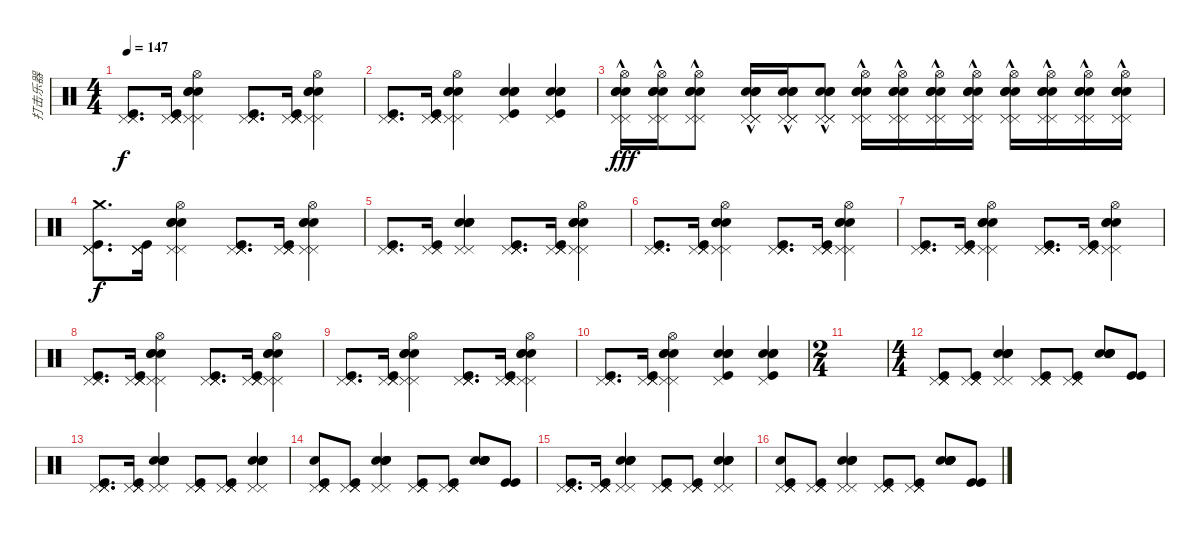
\track ("打击乐器" "打击乐器") {instrument percussion}
\staff {score}
\articulation defaults
\ts (4 4)
\tempo 147
\clef neutral
\ks c
("Pedal Hi-Hat (hit)" "Pedal Hi-Hat (hit)" "Pedal Hi-Hat (hit)" "Kick (hit)").8{d dy f} ("Pedal Hi-Hat (hit)" "Pedal Hi-Hat (hit)" "Pedal Hi-Hat (hit)" "Pedal Hi-Hat (hit)" "Kick (hit)").16 ("Electric Snare (hit)" "Electric Snare (hit)" "Electric Snare (hit)" "Hi-Hat (open)" "Pedal Hi-Hat (hit)" "Pedal Hi-Hat (hit)").4 ("Pedal Hi-Hat (hit)" "Pedal Hi-Hat (hit)" "Pedal Hi-Hat (hit)" "Pedal Hi-Hat (hit)" "Kick (hit)").8{d} ("Pedal Hi-Hat (hit)" "Pedal Hi-Hat (hit)" "Pedal Hi-Hat (hit)" "Pedal Hi-Hat (hit)" "Kick (hit)").16 ("Electric Snare (hit)" "Electric Snare (hit)" "Electric Snare (hit)" "Hi-Hat (open)" "Pedal Hi-Hat (hit)" "Pedal Hi-Hat (hit)").4 |
("Pedal Hi-Hat (hit)" "Pedal Hi-Hat (hit)" "Pedal Hi-Hat (hit)" "Kick (hit)").8{d} ("Pedal Hi-Hat (hit)" "Pedal Hi-Hat (hit)" "Pedal Hi-Hat (hit)" "Pedal Hi-Hat (hit)" "Kick (hit)").16 ("Electric Snare (hit)" "Electric Snare (hit)" "Electric Snare (hit)" "Hi-Hat (open)" "Pedal Hi-Hat (hit)" "Pedal Hi-Hat (hit)").4 ("Pedal Hi-Hat (hit)" "Electric Snare (hit)" "Electric Snare (hit)" "Electric Snare (hit)" "Kick (hit)").4 ("Pedal Hi-Hat (hit)" "Electric Snare (hit)" "Electric Snare (hit)" "Electric Snare (hit)" "Kick (hit)").4 |
("Pedal Hi-Hat (hit)" "Pedal Hi-Hat (hit)" "Hi-Hat (open)" "Electric Snare (hit)" "Electric Snare (hit)" "Electric Snare (hit)"{hac}).16{dy fff} ("Pedal Hi-Hat (hit)" "Pedal Hi-Hat (hit)" "Hi-Hat (open)" "Electric Snare (hit)" "Electric Snare (hit)" "Electric Snare (hit)"{hac}).16 ("Pedal Hi-Hat (hit)" "Pedal Hi-Hat (hit)" "Hi-Hat (open)" "Electric Snare (hit)" "Electric Snare (hit)" "Electric Snare (hit)"{hac}).8 ("Pedal Hi-Hat (hit)" "Pedal Hi-Hat (hit)" "Pedal Hi-Hat (hit)" "Electric Snare (hit)" "Electric Snare (hit)" "Electric Snare (hit)"{hac}).16 ("Pedal Hi-Hat (hit)" "Pedal Hi-Hat (hit)" "Pedal Hi-Hat (hit)" "Electric Snare (hit)" "Electric Snare (hit)" "Electric Snare (hit)"{hac}).16 ("Pedal Hi-Hat (hit)" "Pedal Hi-Hat (hit)" "Pedal Hi-Hat (hit)" "Electric Snare (hit)" "Electric Snare (hit)" "Electric Snare (hit)"{hac}).8 ("Electric Snare (hit)" "Electric Snare (hit)" "Hi-Hat (open)" "Pedal Hi-Hat (hit)" "Pedal Hi-Hat (hit)" "Electric Snare (hit)"{hac}).16 ("Electric Snare (hit)" "Electric Snare (hit)" "Hi-Hat (open)" "Pedal Hi-Hat (hit)" "Pedal Hi-Hat (hit)" "Electric Snare (hit)"{hac}).16 ("Electric Snare (hit)" "Electric Snare (hit)" "Hi-Hat (open)" "Pedal Hi-Hat (hit)" "Pedal Hi-Hat (hit)" "Electric Snare (hit)"{hac}).16 ("Electric Snare (hit)" "Electric Snare (hit)" "Hi-Hat (open)" "Pedal Hi-Hat (hit)" "Pedal Hi-Hat (hit)" "Electric Snare (hit)"{hac}).16 ("Electric Snare (hit)" "Electric Snare (hit)" "Hi-Hat (open)" "Pedal Hi-Hat (hit)" "Pedal Hi-Hat (hit)" "Electric Snare (hit)"{hac}).16 ("Electric Snare (hit)" "Electric Snare (hit)" "Hi-Hat (open)" "Pedal Hi-Hat (hit)" "Pedal Hi-Hat (hit)" "Electric Snare (hit)"{hac}).16 ("Electric Snare (hit)" "Electric Snare (hit)" "Hi-Hat (open)" "Pedal Hi-Hat (hit)" "Pedal Hi-Hat (hit)" "Electric Snare (hit)"{hac}).16 ("Electric Snare (hit)" "Electric Snare (hit)" "Hi-Hat (open)" "Pedal Hi-Hat (hit)" "Pedal Hi-Hat (hit)" "Electric Snare (hit)"{hac}).16 |
("Pedal Hi-Hat (hit)" "Pedal Hi-Hat (hit)" "Pedal Hi-Hat (hit)" "Crash medium (hit)" "Kick (hit)").8{d dy f} ("Pedal Hi-Hat (hit)" "Pedal Hi-Hat (hit)" "Pedal Hi-Hat (hit)" "Pedal Hi-Hat (hit)" "Kick (hit)").16 ("Electric Snare (hit)" "Electric Snare (hit)" "Electric Snare (hit)" "Hi-Hat (open)" "Pedal Hi-Hat (hit)" "Pedal Hi-Hat (hit)").4 ("Pedal Hi-Hat (hit)" "Pedal Hi-Hat (hit)" "Pedal Hi-Hat (hit)" "Pedal Hi-Hat (hit)" "Kick (hit)").8{d} ("Pedal Hi-Hat (hit)" "Pedal Hi-Hat (hit)" "Pedal Hi-Hat (hit)" "Pedal Hi-Hat (hit)" "Kick (hit)").16 ("Electric Snare (hit)" "Electric Snare (hit)" "Electric Snare (hit)" "Hi-Hat (open)" "Pedal Hi-Hat (hit)" "Pedal Hi-Hat (hit)").4 |
("Pedal Hi-Hat (hit)" "Pedal Hi-Hat (hit)" "Pedal Hi-Hat (hit)" "Kick (hit)").8{d} ("Pedal Hi-Hat (hit)" "Pedal Hi-Hat (hit)" "Pedal Hi-Hat (hit)" "Kick (hit)").16 ("Electric Snare (hit)" "Electric Snare (hit)" "Electric Snare (hit)" "Electric Snare (hit)" "Pedal Hi-Hat (hit)" "Pedal Hi-Hat (hit)").4 ("Pedal Hi-Hat (hit)" "Pedal Hi-Hat (hit)" "Pedal Hi-Hat (hit)" "Pedal Hi-Hat (hit)" "Kick (hit)").8{d} ("Pedal Hi-Hat (hit)" "Pedal Hi-Hat (hit)" "Pedal Hi-Hat (hit)" "Pedal Hi-Hat (hit)" "Kick (hit)").16 ("Electric Snare (hit)" "Electric Snare (hit)" "Electric Snare (hit)" "Hi-Hat (open)" "Pedal Hi-Hat (hit)" "Pedal Hi-Hat (hit)").4 |
("Pedal Hi-Hat (hit)" "Pedal Hi-Hat (hit)" "Pedal Hi-Hat (hit)" "Kick (hit)").8{d} ("Pedal Hi-Hat (hit)" "Pedal Hi-Hat (hit)" "Pedal Hi-Hat (hit)" "Pedal Hi-Hat (hit)" "Kick (hit)").16 ("Electric Snare (hit)" "Electric Snare (hit)" "Electric Snare (hit)" "Hi-Hat (open)" "Pedal Hi-Hat (hit)" "Pedal Hi-Hat (hit)").4 ("Pedal Hi-Hat (hit)" "Pedal Hi-Hat (hit)" "Pedal Hi-Hat (hit)" "Pedal Hi-Hat (hit)" "Kick (hit)").8{d} ("Pedal Hi-Hat (hit)" "Pedal Hi-Hat (hit)" "Pedal Hi-Hat (hit)" "Pedal Hi-Hat (hit)" "Kick (hit)").16 ("Electric Snare (hit)" "Electric Snare (hit)" "Electric Snare (hit)" "Hi-Hat (open)" "Pedal Hi-Hat (hit)" "Pedal Hi-Hat (hit)").4 |
("Pedal Hi-Hat (hit)" "Pedal Hi-Hat (hit)" "Pedal Hi-Hat (hit)" "Kick (hit)").8{d} ("Pedal Hi-Hat (hit)" "Pedal Hi-Hat (hit)" "Pedal Hi-Hat (hit)" "Pedal Hi-Hat (hit)" "Kick (hit)").16 ("Electric Snare (hit)" "Electric Snare (hit)" "Electric Snare (hit)" "Hi-Hat (open)" "Pedal Hi-Hat (hit)" "Pedal Hi-Hat (hit)").4 ("Pedal Hi-Hat (hit)" "Pedal Hi-Hat (hit)" "Pedal Hi-Hat (hit)" "Pedal Hi-Hat (hit)" "Kick (hit)").8{d} ("Pedal Hi-Hat (hit)" "Pedal Hi-Hat (hit)" "Pedal Hi-Hat (hit)" "Pedal Hi-Hat (hit)" "Kick (hit)").16 ("Electric Snare (hit)" "Electric Snare (hit)" "Electric Snare (hit)" "Hi-Hat (open)" "Pedal Hi-Hat (hit)" "Pedal Hi-Hat (hit)").4 |
("Pedal Hi-Hat (hit)" "Pedal Hi-Hat (hit)" "Pedal Hi-Hat (hit)" "Kick (hit)").8{d} ("Pedal Hi-Hat (hit)" "Pedal Hi-Hat (hit)" "Pedal Hi-Hat (hit)" "Pedal Hi-Hat (hit)" "Kick (hit)").16 ("Electric Snare (hit)" "Electric Snare (hit)" "Electric Snare (hit)" "Hi-Hat (open)" "Pedal Hi-Hat (hit)" "Pedal Hi-Hat (hit)").4 ("Pedal Hi-Hat (hit)" "Pedal Hi-Hat (hit)" "Pedal Hi-Hat (hit)" "Pedal Hi-Hat (hit)" "Kick (hit)").8{d} ("Pedal Hi-Hat (hit)" "Pedal Hi-Hat (hit)" "Pedal Hi-Hat (hit)" "Pedal Hi-Hat (hit)" "Kick (hit)").16 ("Electric Snare (hit)" "Electric Snare (hit)" "Electric Snare (hit)" "Hi-Hat (open)" "Pedal Hi-Hat (hit)" "Pedal Hi-Hat (hit)").4 |
("Pedal Hi-Hat (hit)" "Pedal Hi-Hat (hit)" "Pedal Hi-Hat (hit)" "Kick (hit)").8{d} ("Pedal Hi-Hat (hit)" "Pedal Hi-Hat (hit)" "Pedal Hi-Hat (hit)" "Pedal Hi-Hat (hit)" "Kick (hit)").16 ("Electric Snare (hit)" "Electric Snare (hit)" "Electric Snare (hit)" "Hi-Hat (open)" "Pedal Hi-Hat (hit)" "Pedal Hi-Hat (hit)").4 ("Pedal Hi-Hat (hit)" "Pedal Hi-Hat (hit)" "Pedal Hi-Hat (hit)" "Pedal Hi-Hat (hit)" "Kick (hit)").8{d} ("Pedal Hi-Hat (hit)" "Pedal Hi-Hat (hit)" "Pedal Hi-Hat (hit)" "Pedal Hi-Hat (hit)" "Kick (hit)").16 ("Electric Snare (hit)" "Electric Snare (hit)" "Electric Snare (hit)" "Hi-Hat (open)" "Pedal Hi-Hat (hit)" "Pedal Hi-Hat (hit)").4 |
("Pedal Hi-Hat (hit)" "Pedal Hi-Hat (hit)" "Pedal Hi-Hat (hit)" "Kick (hit)").8{d} ("Pedal Hi-Hat (hit)" "Pedal Hi-Hat (hit)" "Pedal Hi-Hat (hit)" "Pedal Hi-Hat (hit)" "Kick (hit)").16 ("Electric Snare (hit)" "Electric Snare (hit)" "Electric Snare (hit)" "Hi-Hat (open)" "Pedal Hi-Hat (hit)" "Pedal Hi-Hat (hit)").4 ("Pedal Hi-Hat (hit)" "Electric Snare (hit)" "Electric Snare (hit)" "Electric Snare (hit)" "Kick (hit)").4 ("Pedal Hi-Hat (hit)" "Electric Snare (hit)" "Electric Snare (hit)" "Electric Snare (hit)" "Kick (hit)").4 |
\ts (2 4)
|
\ts (4 4)
("Pedal Hi-Hat (hit)" "Pedal Hi-Hat (hit)" "Pedal Hi-Hat (hit)" "Pedal Hi-Hat (hit)" "Kick (hit)").8 ("Pedal Hi-Hat (hit)" "Pedal Hi-Hat (hit)" "Pedal Hi-Hat (hit)" "Pedal Hi-Hat (hit)" "Kick (hit)").8 ("Electric Snare (hit)" "Electric Snare (hit)" "Electric Snare (hit)" "Electric Snare (hit)" "Pedal Hi-Hat (hit)" "Pedal Hi-Hat (hit)").4 ("Pedal Hi-Hat (hit)" "Pedal Hi-Hat (hit)" "Pedal Hi-Hat (hit)" "Pedal Hi-Hat (hit)" "Kick (hit)").8 ("Pedal Hi-Hat (hit)" "Pedal Hi-Hat (hit)" "Pedal Hi-Hat (hit)" "Pedal Hi-Hat (hit)" "Kick (hit)").8 ("Electric Snare (hit)" "Electric Snare (hit)" "Electric Snare (hit)" "Electric Snare (hit)" "Electric Snare (hit)").8 ("Kick (hit)" "Kick (hit)").8 |
("Pedal Hi-Hat (hit)" "Pedal Hi-Hat (hit)" "Pedal Hi-Hat (hit)" "Pedal Hi-Hat (hit)" "Kick (hit)").8{d} ("Pedal Hi-Hat (hit)" "Pedal Hi-Hat (hit)" "Pedal Hi-Hat (hit)" "Pedal Hi-Hat (hit)" "Kick (hit)").16 ("Electric Snare (hit)" "Electric Snare (hit)" "Electric Snare (hit)" "Electric Snare (hit)" "Pedal Hi-Hat (hit)" "Pedal Hi-Hat (hit)").4 ("Pedal Hi-Hat (hit)" "Pedal Hi-Hat (hit)" "Pedal Hi-Hat (hit)" "Pedal Hi-Hat (hit)" "Kick (hit)").8 ("Pedal Hi-Hat (hit)" "Pedal Hi-Hat (hit)" "Pedal Hi-Hat (hit)" "Pedal Hi-Hat (hit)" "Kick (hit)").8 ("Electric Snare (hit)" "Electric Snare (hit)" "Electric Snare (hit)" "Electric Snare (hit)" "Pedal Hi-Hat (hit)" "Pedal Hi-Hat (hit)").4 |
("Pedal Hi-Hat (hit)" "Pedal Hi-Hat (hit)" "Snare (hit)" "Pedal Hi-Hat (hit)" "Pedal Hi-Hat (hit)" "Kick (hit)").8 ("Pedal Hi-Hat (hit)" "Pedal Hi-Hat (hit)" "Pedal Hi-Hat (hit)" "Pedal Hi-Hat (hit)" "Kick (hit)").8 ("Electric Snare (hit)" "Electric Snare (hit)" "Electric Snare (hit)" "Electric Snare (hit)" "Pedal Hi-Hat (hit)" "Pedal Hi-Hat (hit)").4 ("Pedal Hi-Hat (hit)" "Pedal Hi-Hat (hit)" "Pedal Hi-Hat (hit)" "Pedal Hi-Hat (hit)" "Kick (hit)").8 ("Pedal Hi-Hat (hit)" "Pedal Hi-Hat (hit)" "Pedal Hi-Hat (hit)" "Pedal Hi-Hat (hit)" "Kick (hit)").8 ("Electric Snare (hit)" "Electric Snare (hit)" "Electric Snare (hit)" "Electric Snare (hit)" "Electric Snare (hit)").8 ("Kick (hit)" "Kick (hit)").8 |
("Pedal Hi-Hat (hit)" "Pedal Hi-Hat (hit)" "Pedal Hi-Hat (hit)" "Pedal Hi-Hat (hit)" "Kick (hit)").8{d} ("Pedal Hi-Hat (hit)" "Pedal Hi-Hat (hit)" "Pedal Hi-Hat (hit)" "Pedal Hi-Hat (hit)" "Kick (hit)").16 ("Electric Snare (hit)" "Electric Snare (hit)" "Electric Snare (hit)" "Electric Snare (hit)" "Pedal Hi-Hat (hit)" "Pedal Hi-Hat (hit)").4 ("Pedal Hi-Hat (hit)" "Pedal Hi-Hat (hit)" "Pedal Hi-Hat (hit)" "Pedal Hi-Hat (hit)" "Kick (hit)").8 ("Pedal Hi-Hat (hit)" "Pedal Hi-Hat (hit)" "Pedal Hi-Hat (hit)" "Pedal Hi-Hat (hit)" "Kick (hit)").8 ("Electric Snare (hit)" "Electric Snare (hit)" "Electric Snare (hit)" "Electric Snare (hit)" "Pedal Hi-Hat (hit)" "Pedal Hi-Hat (hit)").4 |
("Pedal Hi-Hat (hit)" "Pedal Hi-Hat (hit)" "Snare (hit)" "Pedal Hi-Hat (hit)" "Pedal Hi-Hat (hit)" "Kick (hit)").8 ("Pedal Hi-Hat (hit)" "Pedal Hi-Hat (hit)" "Pedal Hi-Hat (hit)" "Pedal Hi-Hat (hit)" "Kick (hit)").8 ("Electric Snare (hit)" "Electric Snare (hit)" "Electric Snare (hit)" "Electric Snare (hit)" "Pedal Hi-Hat (hit)" "Pedal Hi-Hat (hit)").4 ("Pedal Hi-Hat (hit)" "Pedal Hi-Hat (hit)" "Pedal Hi-Hat (hit)" "Pedal Hi-Hat (hit)" "Kick (hit)").8 ("Pedal Hi-Hat (hit)" "Pedal Hi-Hat (hit)" "Pedal Hi-Hat (hit)" "Pedal Hi-Hat (hit)" "Kick (hit)").8 ("Electric Snare (hit)" "Electric Snare (hit)" "Electric Snare (hit)" "Electric Snare (hit)" "Electric Snare (hit)").8 ("Kick (hit)" "Kick (hit)").8
